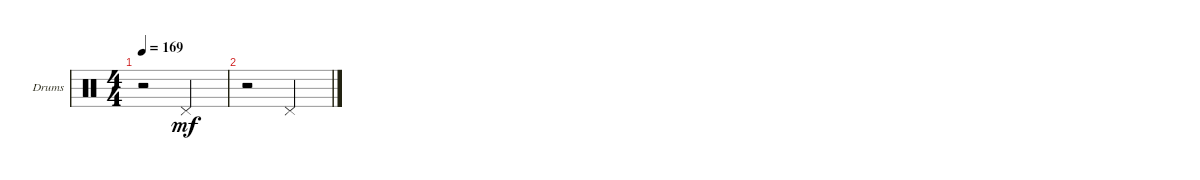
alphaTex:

\bracketExtendMode groupsimilarinstruments
\firstSystemTrackNameOrientation horizontal
\otherSystemsTrackNameOrientation horizontal
\track ("Drumkit" "Drums") {instrument percussion}
\staff {score}
\articulation defaults
\ts (4 4)
\tempo 169
\clef neutral
\ks c
r.2{dy mf} "Pedal Hi-Hat (hit)".2 |
r.2 "Pedal Hi-Hat (hit)".2
